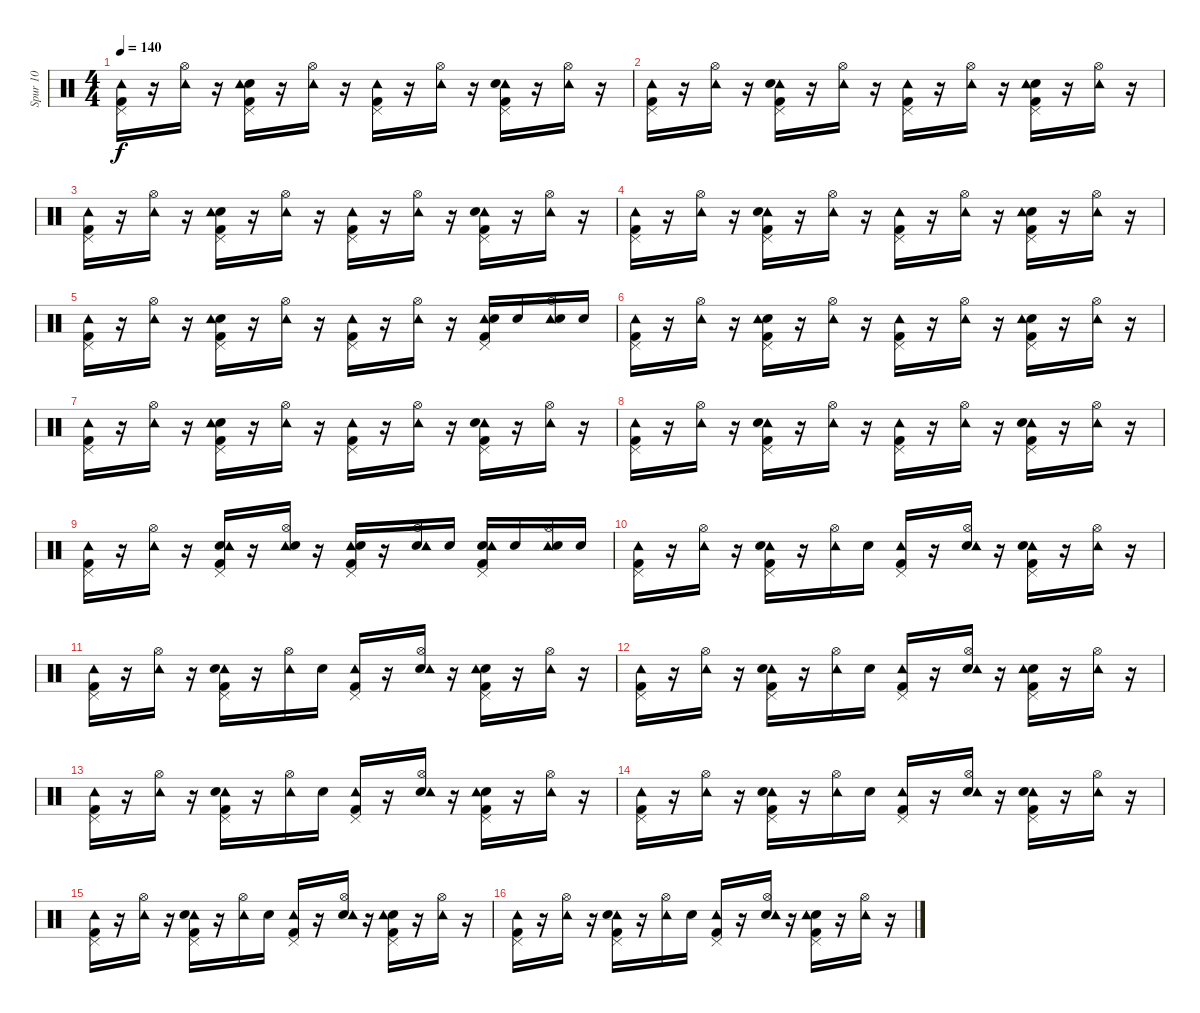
\track ("Spur 10" "Spur 10") {instrument percussion}
\staff {score}
\articulation defaults
\ts (4 4)
\tempo 140
\clef neutral
\ks c
("Pedal Hi-Hat (hit)" "Kick (hit) 2" "Tambourine (hit)").16{dy f} r.16 ("Hi-Hat (open)" "Tambourine (hit)").16 r.16 ("Pedal Hi-Hat (hit)" "Kick (hit) 2" "Snare (hit) 2" "Tambourine (hit)").16 r.16 ("Tambourine (hit)" "Hi-Hat (open)").16 r.16 ("Tambourine (hit)" "Pedal Hi-Hat (hit)" "Kick (hit) 2").16 r.16 ("Hi-Hat (open)" "Tambourine (hit)").16 r.16 ("Kick (hit) 2" "Tambourine (hit)" "Snare (hit) 2" "Pedal Hi-Hat (hit)").16 r.16 ("Tambourine (hit)" "Hi-Hat (open)").16 r.16 |
("Pedal Hi-Hat (hit)" "Tambourine (hit)" "Kick (hit) 2").16 r.16 ("Tambourine (hit)" "Hi-Hat (open)").16 r.16 ("Kick (hit) 2" "Tambourine (hit)" "Snare (hit) 2" "Pedal Hi-Hat (hit)").16 r.16 ("Hi-Hat (open)" "Tambourine (hit)").16 r.16 ("Pedal Hi-Hat (hit)" "Tambourine (hit)" "Kick (hit) 2").16 r.16 ("Hi-Hat (open)" "Tambourine (hit)").16 r.16 ("Kick (hit) 2" "Snare (hit) 2" "Pedal Hi-Hat (hit)" "Tambourine (hit)").16 r.16 ("Hi-Hat (open)" "Tambourine (hit)").16 r.16 |
("Pedal Hi-Hat (hit)" "Kick (hit) 2" "Tambourine (hit)").16 r.16 ("Hi-Hat (open)" "Tambourine (hit)").16 r.16 ("Pedal Hi-Hat (hit)" "Kick (hit) 2" "Snare (hit) 2" "Tambourine (hit)").16 r.16 ("Tambourine (hit)" "Hi-Hat (open)").16 r.16 ("Tambourine (hit)" "Pedal Hi-Hat (hit)" "Kick (hit) 2").16 r.16 ("Hi-Hat (open)" "Tambourine (hit)").16 r.16 ("Kick (hit) 2" "Tambourine (hit)" "Snare (hit) 2" "Pedal Hi-Hat (hit)").16 r.16 ("Tambourine (hit)" "Hi-Hat (open)").16 r.16 |
("Pedal Hi-Hat (hit)" "Tambourine (hit)" "Kick (hit) 2").16 r.16 ("Tambourine (hit)" "Hi-Hat (open)").16 r.16 ("Kick (hit) 2" "Tambourine (hit)" "Snare (hit) 2" "Pedal Hi-Hat (hit)").16 r.16 ("Hi-Hat (open)" "Tambourine (hit)").16 r.16 ("Pedal Hi-Hat (hit)" "Tambourine (hit)" "Kick (hit) 2").16 r.16 ("Hi-Hat (open)" "Tambourine (hit)").16 r.16 ("Kick (hit) 2" "Snare (hit) 2" "Pedal Hi-Hat (hit)" "Tambourine (hit)").16 r.16 ("Hi-Hat (open)" "Tambourine (hit)").16 r.16 |
("Pedal Hi-Hat (hit)" "Kick (hit) 2" "Tambourine (hit)").16 r.16 ("Hi-Hat (open)" "Tambourine (hit)").16 r.16 ("Pedal Hi-Hat (hit)" "Kick (hit) 2" "Snare (hit) 2" "Tambourine (hit)").16 r.16 ("Tambourine (hit)" "Hi-Hat (open)").16 r.16 ("Tambourine (hit)" "Pedal Hi-Hat (hit)" "Kick (hit) 2").16 r.16 ("Hi-Hat (open)" "Tambourine (hit)").16 r.16 ("Kick (hit) 2" "Tambourine (hit)" "Snare (hit) 2" "Pedal Hi-Hat (hit)").16 "Snare (hit) 2".16 ("Hi-Hat (open)" "Tambourine (hit)" "Snare (hit) 2").16 "Snare (hit) 2".16 |
("Pedal Hi-Hat (hit)" "Tambourine (hit)" "Kick (hit) 2").16 r.16 ("Tambourine (hit)" "Hi-Hat (open)").16 r.16 ("Snare (hit) 2" "Kick (hit) 2" "Tambourine (hit)" "Pedal Hi-Hat (hit)").16 r.16 ("Hi-Hat (open)" "Tambourine (hit)").16 r.16 ("Kick (hit) 2" "Pedal Hi-Hat (hit)" "Tambourine (hit)").16 r.16 ("Hi-Hat (open)" "Tambourine (hit)").16 r.16 ("Kick (hit) 2" "Snare (hit) 2" "Pedal Hi-Hat (hit)" "Tambourine (hit)").16 r.16 ("Tambourine (hit)" "Hi-Hat (open)").16 r.16 |
("Pedal Hi-Hat (hit)" "Kick (hit) 2" "Tambourine (hit)").16 r.16 ("Hi-Hat (open)" "Tambourine (hit)").16 r.16 ("Kick (hit) 2" "Pedal Hi-Hat (hit)" "Snare (hit) 2" "Tambourine (hit)").16 r.16 ("Tambourine (hit)" "Hi-Hat (open)").16 r.16 ("Kick (hit) 2" "Tambourine (hit)" "Pedal Hi-Hat (hit)").16 r.16 ("Hi-Hat (open)" "Tambourine (hit)").16 r.16 ("Kick (hit) 2" "Pedal Hi-Hat (hit)" "Tambourine (hit)" "Snare (hit) 2").16 r.16 ("Tambourine (hit)" "Hi-Hat (open)").16 r.16 |
("Pedal Hi-Hat (hit)" "Tambourine (hit)" "Kick (hit) 2").16 r.16 ("Hi-Hat (open)" "Tambourine (hit)").16 r.16 ("Kick (hit) 2" "Tambourine (hit)" "Snare (hit) 2" "Pedal Hi-Hat (hit)").16 r.16 ("Hi-Hat (open)" "Tambourine (hit)").16 r.16 ("Tambourine (hit)" "Pedal Hi-Hat (hit)" "Kick (hit) 2").16 r.16 ("Hi-Hat (open)" "Tambourine (hit)").16 r.16 ("Tambourine (hit)" "Kick (hit) 2" "Snare (hit) 2" "Pedal Hi-Hat (hit)").16 r.16 ("Hi-Hat (open)" "Tambourine (hit)").16 r.16 |
("Pedal Hi-Hat (hit)" "Kick (hit) 2" "Tambourine (hit)").16 r.16 ("Tambourine (hit)" "Hi-Hat (open)").16 r.16 ("Pedal Hi-Hat (hit)" "Kick (hit) 2" "Snare (hit) 2" "Tambourine (hit)").16 r.16 ("Hi-Hat (open)" "Tambourine (hit)" "Snare (hit) 2").16 r.16 ("Tambourine (hit)" "Pedal Hi-Hat (hit)" "Kick (hit) 2" "Snare (hit) 2").16 r.16 ("Snare (hit) 2" "Hi-Hat (open)" "Tambourine (hit)").16 "Snare (hit) 2".16 ("Snare (hit) 2" "Kick (hit) 2" "Tambourine (hit)" "Pedal Hi-Hat (hit)").16 "Snare (hit) 2".16 ("Tambourine (hit)" "Hi-Hat (open)" "Snare (hit) 2").16 "Snare (hit) 2".16 |
("Tambourine (hit)" "Kick (hit) 2" "Pedal Hi-Hat (hit)").16 r.16 ("Tambourine (hit)" "Hi-Hat (open)").16 r.16 ("Kick (hit) 2" "Tambourine (hit)" "Pedal Hi-Hat (hit)" "Snare (hit) 2").16 r.16 ("Tambourine (hit)" "Hi-Hat (open)").16 "Snare (hit) 2".16 ("Tambourine (hit)" "Kick (hit) 2" "Pedal Hi-Hat (hit)").16 r.16 ("Snare (hit) 2" "Tambourine (hit)" "Hi-Hat (open)").16 r.16 ("Pedal Hi-Hat (hit)" "Kick (hit) 2" "Tambourine (hit)" "Snare (hit) 2").16 r.16 ("Tambourine (hit)" "Hi-Hat (open)").16 r.16 |
("Tambourine (hit)" "Pedal Hi-Hat (hit)" "Kick (hit) 2").16 r.16 ("Tambourine (hit)" "Hi-Hat (open)").16 r.16 ("Kick (hit) 2" "Tambourine (hit)" "Pedal Hi-Hat (hit)" "Snare (hit) 2").16 r.16 ("Hi-Hat (open)" "Tambourine (hit)").16 "Snare (hit) 2".16 ("Pedal Hi-Hat (hit)" "Tambourine (hit)" "Kick (hit) 2").16 r.16 ("Snare (hit) 2" "Hi-Hat (open)" "Tambourine (hit)").16 r.16 ("Snare (hit) 2" "Tambourine (hit)" "Kick (hit) 2" "Pedal Hi-Hat (hit)").16 r.16 ("Tambourine (hit)" "Hi-Hat (open)").16 r.16 |
("Tambourine (hit)" "Kick (hit) 2" "Pedal Hi-Hat (hit)").16 r.16 ("Tambourine (hit)" "Hi-Hat (open)").16 r.16 ("Tambourine (hit)" "Kick (hit) 2" "Pedal Hi-Hat (hit)" "Snare (hit) 2").16 r.16 ("Tambourine (hit)" "Hi-Hat (open)").16 "Snare (hit) 2".16 ("Pedal Hi-Hat (hit)" "Kick (hit) 2" "Tambourine (hit)").16 r.16 ("Snare (hit) 2" "Tambourine (hit)" "Hi-Hat (open)").16 r.16 ("Snare (hit) 2" "Kick (hit) 2" "Pedal Hi-Hat (hit)" "Tambourine (hit)").16 r.16 ("Tambourine (hit)" "Hi-Hat (open)").16 r.16 |
("Tambourine (hit)" "Kick (hit) 2" "Pedal Hi-Hat (hit)").16 r.16 ("Tambourine (hit)" "Hi-Hat (open)").16 r.16 ("Pedal Hi-Hat (hit)" "Kick (hit) 2" "Tambourine (hit)" "Snare (hit) 2").16 r.16 ("Tambourine (hit)" "Hi-Hat (open)").16 "Snare (hit) 2".16 ("Pedal Hi-Hat (hit)" "Kick (hit) 2" "Tambourine (hit)").16 r.16 ("Snare (hit) 2" "Tambourine (hit)" "Hi-Hat (open)").16 r.16 ("Snare (hit) 2" "Kick (hit) 2" "Pedal Hi-Hat (hit)" "Tambourine (hit)").16 r.16 ("Hi-Hat (open)" "Tambourine (hit)").16 r.16 |
("Tambourine (hit)" "Kick (hit) 2" "Pedal Hi-Hat (hit)").16 r.16 ("Tambourine (hit)" "Hi-Hat (open)").16 r.16 ("Kick (hit) 2" "Tambourine (hit)" "Pedal Hi-Hat (hit)" "Snare (hit) 2").16 r.16 ("Tambourine (hit)" "Hi-Hat (open)").16 "Snare (hit) 2".16 ("Tambourine (hit)" "Kick (hit) 2" "Pedal Hi-Hat (hit)").16 r.16 ("Snare (hit) 2" "Tambourine (hit)" "Hi-Hat (open)").16 r.16 ("Pedal Hi-Hat (hit)" "Kick (hit) 2" "Tambourine (hit)" "Snare (hit) 2").16 r.16 ("Tambourine (hit)" "Hi-Hat (open)").16 r.16 |
("Tambourine (hit)" "Pedal Hi-Hat (hit)" "Kick (hit) 2").16 r.16 ("Tambourine (hit)" "Hi-Hat (open)").16 r.16 ("Kick (hit) 2" "Tambourine (hit)" "Pedal Hi-Hat (hit)" "Snare (hit) 2").16 r.16 ("Hi-Hat (open)" "Tambourine (hit)").16 "Snare (hit) 2".16 ("Pedal Hi-Hat (hit)" "Tambourine (hit)" "Kick (hit) 2").16 r.16 ("Snare (hit) 2" "Hi-Hat (open)" "Tambourine (hit)").16 r.16 ("Snare (hit) 2" "Tambourine (hit)" "Kick (hit) 2" "Pedal Hi-Hat (hit)").16 r.16 ("Tambourine (hit)" "Hi-Hat (open)").16 r.16 |
("Tambourine (hit)" "Kick (hit) 2" "Pedal Hi-Hat (hit)").16 r.16 ("Tambourine (hit)" "Hi-Hat (open)").16 r.16 ("Tambourine (hit)" "Kick (hit) 2" "Pedal Hi-Hat (hit)" "Snare (hit) 2").16 r.16 ("Tambourine (hit)" "Hi-Hat (open)").16 "Snare (hit) 2".16 ("Pedal Hi-Hat (hit)" "Kick (hit) 2" "Tambourine (hit)").16 r.16 ("Snare (hit) 2" "Tambourine (hit)" "Hi-Hat (open)").16 r.16 ("Snare (hit) 2" "Kick (hit) 2" "Pedal Hi-Hat (hit)" "Tambourine (hit)").16 r.16 ("Tambourine (hit)" "Hi-Hat (open)").16 r.16
